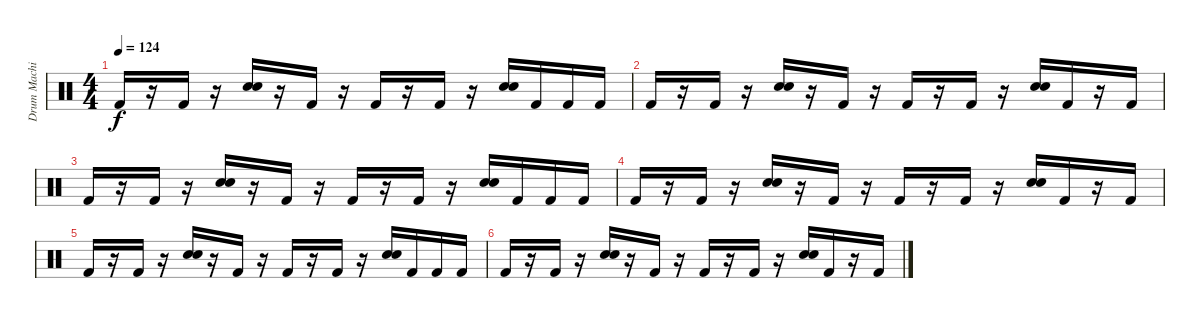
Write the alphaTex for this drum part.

\track ("Drum Machine" "Drum Machi") {instrument percussion}
\staff {score}
\articulation defaults
\ts (4 4)
\tempo 124
\clef neutral
\ks c "Kick (hit) 2".16{dy f}
r.16 "Kick (hit) 2".16 r.16 ("Electric Snare (hit)" "Hand Clap (hit)").16 r.16 "Kick (hit) 2".16 r.16 "Kick (hit) 2".16 r.16 "Kick (hit) 2".16 r.16 ("Electric Snare (hit)" "Hand Clap (hit)").16 "Kick (hit) 2".16 "Kick (hit) 2".16 "Kick (hit) 2".16 |
"Kick (hit) 2".16 r.16 "Kick (hit) 2".16 r.16 ("Electric Snare (hit)" "Hand Clap (hit)").16 r.16 "Kick (hit) 2".16 r.16 "Kick (hit) 2".16 r.16 "Kick (hit) 2".16 r.16 ("Electric Snare (hit)" "Hand Clap (hit)").16 "Kick (hit) 2".16 r.16 "Kick (hit) 2".16 |
"Kick (hit) 2".16 r.16 "Kick (hit) 2".16 r.16 ("Electric Snare (hit)" "Hand Clap (hit)").16 r.16 "Kick (hit) 2".16 r.16 "Kick (hit) 2".16 r.16 "Kick (hit) 2".16 r.16 ("Electric Snare (hit)" "Hand Clap (hit)").16 "Kick (hit) 2".16 "Kick (hit) 2".16 "Kick (hit) 2".16 |
"Kick (hit) 2".16 r.16 "Kick (hit) 2".16 r.16 ("Electric Snare (hit)" "Hand Clap (hit)").16 r.16 "Kick (hit) 2".16 r.16 "Kick (hit) 2".16 r.16 "Kick (hit) 2".16 r.16 ("Electric Snare (hit)" "Hand Clap (hit)").16 "Kick (hit) 2".16 r.16 "Kick (hit) 2".16 |
"Kick (hit) 2".16 r.16 "Kick (hit) 2".16 r.16 ("Electric Snare (hit)" "Hand Clap (hit)").16 r.16 "Kick (hit) 2".16 r.16 "Kick (hit) 2".16 r.16 "Kick (hit) 2".16 r.16 ("Electric Snare (hit)" "Hand Clap (hit)").16 "Kick (hit) 2".16 "Kick (hit) 2".16 "Kick (hit) 2".16 |
"Kick (hit) 2".16 r.16 "Kick (hit) 2".16 r.16 ("Electric Snare (hit)" "Hand Clap (hit)").16 r.16 "Kick (hit) 2".16 r.16 "Kick (hit) 2".16 r.16 "Kick (hit) 2".16 r.16 ("Electric Snare (hit)" "Hand Clap (hit)").16 "Kick (hit) 2".16 r.16 "Kick (hit) 2".16
